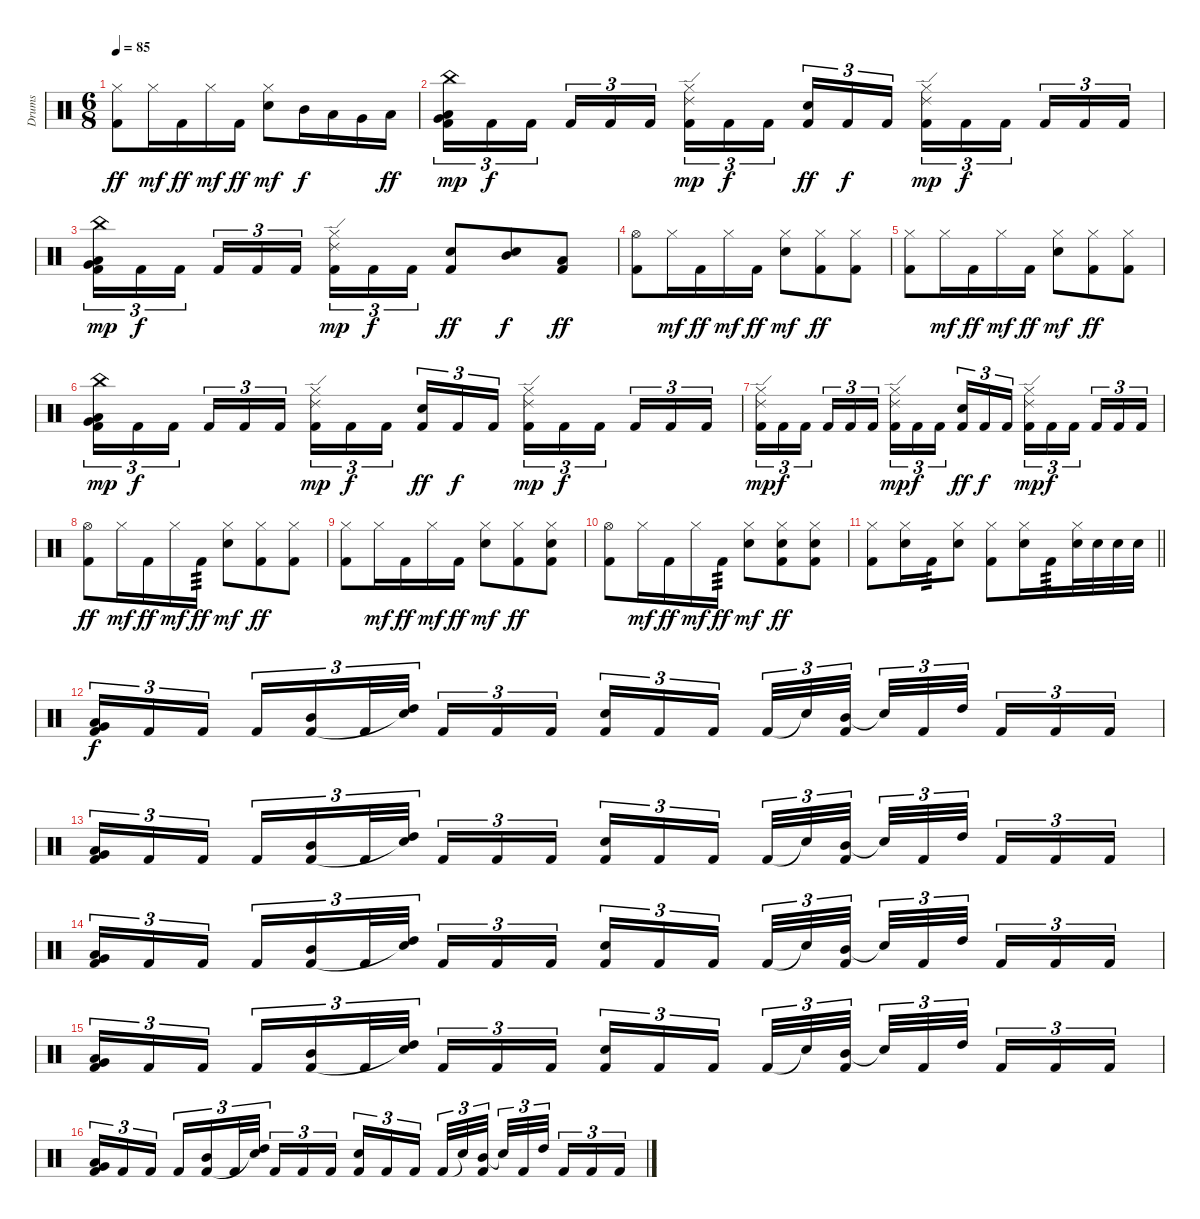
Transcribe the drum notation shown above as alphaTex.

\track ("Drums" "Drums") {instrument percussion}
\staff {score}
\articulation defaults
\ts (6 8)
\tempo 85
\clef neutral
\ks c
("Hi-Hat (closed)" "Kick (hit) 2").8{dy ff} "Hi-Hat (closed)".16{dy mf} "Kick (hit) 2".16{dy ff} "Hi-Hat (closed)".16{dy mf} "Kick (hit) 2".16{dy ff} ("Hi-Hat (closed)" "Snare (hit) 2").8{dy mf} "Mid Tom (hit)".16{dy f} "Low Tom (hit)".16 "Very Low Tom (hit)".16 "Low Floor Tom (hit)".16{dy ff} |
("China (hit)" "Low Tom (hit)" "Very Low Tom (hit)" "Kick (hit) 2").16{tu (3 2) dy mp} "Kick (hit) 2".16{tu (3 2) dy f} "Kick (hit) 2".16{tu (3 2) beam splitsecondary} "Kick (hit) 2".16{tu (3 2)} "Kick (hit) 2".16{tu (3 2)} "Kick (hit) 2".16{tu (3 2) beam splitsecondary} ("Ride (edge) 2" "Hi-Hat (closed)" "Kick (hit) 2").16{tu (3 2) dy mp} "Kick (hit) 2".16{tu (3 2) dy f} "Kick (hit) 2".16{tu (3 2)} ("Snare (hit) 2" "Kick (hit) 2").16{tu (3 2) dy ff} "Kick (hit) 2".16{tu (3 2) dy f} "Kick (hit) 2".16{tu (3 2) beam splitsecondary} ("Ride (edge) 2" "Hi-Hat (closed)" "Kick (hit) 2").16{tu (3 2) dy mp} "Kick (hit) 2".16{tu (3 2) dy f} "Kick (hit) 2".16{tu (3 2) beam splitsecondary} "Kick (hit) 2".16{tu (3 2)} "Kick (hit) 2".16{tu (3 2)} "Kick (hit) 2".16{tu (3 2)} |
("China (hit)" "Low Tom (hit)" "Very Low Tom (hit)" "Kick (hit) 2").16{tu (3 2) dy mp} "Kick (hit) 2".16{tu (3 2) dy f} "Kick (hit) 2".16{tu (3 2) beam splitsecondary} "Kick (hit) 2".16{tu (3 2)} "Kick (hit) 2".16{tu (3 2)} "Kick (hit) 2".16{tu (3 2) beam splitsecondary} ("Ride (edge) 2" "Hi-Hat (closed)" "Kick (hit) 2").16{tu (3 2) dy mp} "Kick (hit) 2".16{tu (3 2) dy f} "Kick (hit) 2".16{tu (3 2)} ("Snare (hit) 2" "Kick (hit) 2").8{dy ff} ("Mid Tom (hit)" "Snare (hit) 2").8{dy f} ("Low Floor Tom (hit)" "Kick (hit) 2").8{dy ff} |
("Hi-Hat (open)" "Kick (hit) 2").8 "Hi-Hat (closed)".16{dy mf} "Kick (hit) 2".16{dy ff} "Hi-Hat (closed)".16{dy mf} "Kick (hit) 2".16{dy ff} ("Hi-Hat (closed)" "Snare (hit) 2").8{dy mf} ("Hi-Hat (closed)" "Kick (hit) 2").8{dy ff} ("Hi-Hat (closed)" "Kick (hit) 2").8 |
("Hi-Hat (closed)" "Kick (hit) 2").8 "Hi-Hat (closed)".16{dy mf} "Kick (hit) 2".16{dy ff} "Hi-Hat (closed)".16{dy mf} "Kick (hit) 2".16{dy ff} ("Hi-Hat (closed)" "Snare (hit) 2").8{dy mf} ("Hi-Hat (closed)" "Kick (hit) 2").8{dy ff} ("Hi-Hat (closed)" "Kick (hit) 2").8 |
("China (hit)" "Low Tom (hit)" "Very Low Tom (hit)" "Kick (hit) 2").16{tu (3 2) dy mp} "Kick (hit) 2".16{tu (3 2) dy f} "Kick (hit) 2".16{tu (3 2) beam splitsecondary} "Kick (hit) 2".16{tu (3 2)} "Kick (hit) 2".16{tu (3 2)} "Kick (hit) 2".16{tu (3 2) beam splitsecondary} ("Ride (edge) 2" "Hi-Hat (closed)" "Kick (hit) 2").16{tu (3 2) dy mp} "Kick (hit) 2".16{tu (3 2) dy f} "Kick (hit) 2".16{tu (3 2)} ("Snare (hit) 2" "Kick (hit) 2").16{tu (3 2) dy ff} "Kick (hit) 2".16{tu (3 2) dy f} "Kick (hit) 2".16{tu (3 2) beam splitsecondary} ("Ride (edge) 2" "Hi-Hat (closed)" "Kick (hit) 2").16{tu (3 2) dy mp} "Kick (hit) 2".16{tu (3 2) dy f} "Kick (hit) 2".16{tu (3 2) beam splitsecondary} "Kick (hit) 2".16{tu (3 2)} "Kick (hit) 2".16{tu (3 2)} "Kick (hit) 2".16{tu (3 2)} |
("Ride (edge) 2" "Hi-Hat (closed)" "Kick (hit) 2").16{tu (3 2) dy mp} "Kick (hit) 2".16{tu (3 2) dy f} "Kick (hit) 2".16{tu (3 2) beam splitsecondary} "Kick (hit) 2".16{tu (3 2)} "Kick (hit) 2".16{tu (3 2)} "Kick (hit) 2".16{tu (3 2) beam splitsecondary} ("Ride (edge) 2" "Hi-Hat (closed)" "Kick (hit) 2").16{tu (3 2) dy mp} "Kick (hit) 2".16{tu (3 2) dy f} "Kick (hit) 2".16{tu (3 2)} ("Snare (hit) 2" "Kick (hit) 2").16{tu (3 2) dy ff} "Kick (hit) 2".16{tu (3 2) dy f} "Kick (hit) 2".16{tu (3 2) beam splitsecondary} ("Ride (edge) 2" "Hi-Hat (closed)" "Kick (hit) 2").16{tu (3 2) dy mp} "Kick (hit) 2".16{tu (3 2) dy f} "Kick (hit) 2".16{tu (3 2) beam splitsecondary} "Kick (hit) 2".16{tu (3 2)} "Kick (hit) 2".16{tu (3 2)} "Kick (hit) 2".16{tu (3 2)} |
("Hi-Hat (open)" "Kick (hit) 2").8{dy ff} "Hi-Hat (closed)".16{dy mf} "Kick (hit) 2".16{dy ff} "Hi-Hat (closed)".16{dy mf} "Kick (hit) 2".16{tp 3 dy ff} ("Hi-Hat (closed)" "Snare (hit) 2").8{dy mf} ("Hi-Hat (closed)" "Kick (hit) 2").8{dy ff} ("Hi-Hat (closed)" "Kick (hit) 2").8 |
("Hi-Hat (closed)" "Kick (hit) 2").8 "Hi-Hat (closed)".16{dy mf} "Kick (hit) 2".16{dy ff} "Hi-Hat (closed)".16{dy mf} "Kick (hit) 2".16{dy ff} ("Hi-Hat (closed)" "Snare (hit) 2").8{dy mf} ("Hi-Hat (closed)" "Kick (hit) 2").8{dy ff} ("Hi-Hat (closed)" "Snare (hit) 2" "Kick (hit) 2").8 |
("Hi-Hat (open)" "Kick (hit) 2").8 "Hi-Hat (closed)".16{dy mf} "Kick (hit) 2".16{dy ff} "Hi-Hat (closed)".16{dy mf} "Kick (hit) 2".16{tp 3 dy ff} ("Hi-Hat (closed)" "Snare (hit) 2").8{dy mf} ("Hi-Hat (closed)" "Snare (hit) 2" "Kick (hit) 2").8{dy ff} ("Hi-Hat (closed)" "Snare (hit) 2" "Kick (hit) 2").8 |
\barLineRight lightlight
("Hi-Hat (closed)" "Kick (hit) 2").8 ("Hi-Hat (closed)" "Snare (hit) 2").16 "Kick (hit) 2".16{tp 3} ("Hi-Hat (closed)" "Snare (hit) 2").8 ("Hi-Hat (closed)" "Kick (hit) 2").8 ("Hi-Hat (closed)" "Snare (hit) 2").16 "Kick (hit) 2".16{tp 3} ("Hi-Hat (closed)" "Snare (hit) 2").32 "Snare (hit) 2".32 "Snare (hit) 2".32 "Snare (hit) 2".32 |
\section ("" "")
("Very Low Tom (hit)" "Low Tom (hit)" "Kick (hit) 2").16{tu (3 2) dy f} "Kick (hit) 2".16{tu (3 2)} "Kick (hit) 2".16{tu (3 2) beam splitsecondary} "Kick (hit) 2".16{tu (3 2)} ("Mid Tom (hit)" "Kick (hit) 2").16{tu (3 2)} "Kick (hit) 2".32{tu (3 2)} ("High Tom (hit)" "Snare (hit)"{t}).32{tu (3 2) beam splitsecondary} "Kick (hit) 2".16{tu (3 2)} "Kick (hit) 2".16{tu (3 2)} "Kick (hit) 2".16{tu (3 2)} ("Snare (hit) 2" "Kick (hit) 2").16{tu (3 2)} "Kick (hit) 2".16{tu (3 2)} "Kick (hit) 2".16{tu (3 2) beam splitsecondary} "Kick (hit) 2".32{tu (3 2)} "Snare (hit)"{t}.32{tu (3 2)} ("Mid Tom (hit)" "Kick (hit) 2").32{tu (3 2) beam splitsecondary} "Snare (hit)"{t}.32{tu (3 2)} "Kick (hit) 2".32{tu (3 2)} "High Tom (hit)".32{tu (3 2) beam splitsecondary} "Kick (hit) 2".16{tu (3 2)} "Kick (hit) 2".16{tu (3 2)} "Kick (hit) 2".16{tu (3 2)} |
("Very Low Tom (hit)" "Low Tom (hit)" "Kick (hit) 2").16{tu (3 2)} "Kick (hit) 2".16{tu (3 2)} "Kick (hit) 2".16{tu (3 2) beam splitsecondary} "Kick (hit) 2".16{tu (3 2)} ("Mid Tom (hit)" "Kick (hit) 2").16{tu (3 2)} "Kick (hit) 2".32{tu (3 2)} ("High Tom (hit)" "Snare (hit)"{t}).32{tu (3 2) beam splitsecondary} "Kick (hit) 2".16{tu (3 2)} "Kick (hit) 2".16{tu (3 2)} "Kick (hit) 2".16{tu (3 2)} ("Snare (hit) 2" "Kick (hit) 2").16{tu (3 2)} "Kick (hit) 2".16{tu (3 2)} "Kick (hit) 2".16{tu (3 2) beam splitsecondary} "Kick (hit) 2".32{tu (3 2)} "Snare (hit)"{t}.32{tu (3 2)} ("Mid Tom (hit)" "Kick (hit) 2").32{tu (3 2) beam splitsecondary} "Snare (hit)"{t}.32{tu (3 2)} "Kick (hit) 2".32{tu (3 2)} "High Tom (hit)".32{tu (3 2) beam splitsecondary} "Kick (hit) 2".16{tu (3 2)} "Kick (hit) 2".16{tu (3 2)} "Kick (hit) 2".16{tu (3 2)} |
("Very Low Tom (hit)" "Low Tom (hit)" "Kick (hit) 2").16{tu (3 2)} "Kick (hit) 2".16{tu (3 2)} "Kick (hit) 2".16{tu (3 2) beam splitsecondary} "Kick (hit) 2".16{tu (3 2)} ("Mid Tom (hit)" "Kick (hit) 2").16{tu (3 2)} "Kick (hit) 2".32{tu (3 2)} ("High Tom (hit)" "Snare (hit)"{t}).32{tu (3 2) beam splitsecondary} "Kick (hit) 2".16{tu (3 2)} "Kick (hit) 2".16{tu (3 2)} "Kick (hit) 2".16{tu (3 2)} ("Snare (hit) 2" "Kick (hit) 2").16{tu (3 2)} "Kick (hit) 2".16{tu (3 2)} "Kick (hit) 2".16{tu (3 2) beam splitsecondary} "Kick (hit) 2".32{tu (3 2)} "Snare (hit)"{t}.32{tu (3 2)} ("Mid Tom (hit)" "Kick (hit) 2").32{tu (3 2) beam splitsecondary} "Snare (hit)"{t}.32{tu (3 2)} "Kick (hit) 2".32{tu (3 2)} "High Tom (hit)".32{tu (3 2) beam splitsecondary} "Kick (hit) 2".16{tu (3 2)} "Kick (hit) 2".16{tu (3 2)} "Kick (hit) 2".16{tu (3 2)} |
("Very Low Tom (hit)" "Low Tom (hit)" "Kick (hit) 2").16{tu (3 2)} "Kick (hit) 2".16{tu (3 2)} "Kick (hit) 2".16{tu (3 2) beam splitsecondary} "Kick (hit) 2".16{tu (3 2)} ("Mid Tom (hit)" "Kick (hit) 2").16{tu (3 2)} "Kick (hit) 2".32{tu (3 2)} ("High Tom (hit)" "Snare (hit)"{t}).32{tu (3 2) beam splitsecondary} "Kick (hit) 2".16{tu (3 2)} "Kick (hit) 2".16{tu (3 2)} "Kick (hit) 2".16{tu (3 2)} ("Snare (hit) 2" "Kick (hit) 2").16{tu (3 2)} "Kick (hit) 2".16{tu (3 2)} "Kick (hit) 2".16{tu (3 2) beam splitsecondary} "Kick (hit) 2".32{tu (3 2)} "Snare (hit)"{t}.32{tu (3 2)} ("Mid Tom (hit)" "Kick (hit) 2").32{tu (3 2) beam splitsecondary} "Snare (hit)"{t}.32{tu (3 2)} "Kick (hit) 2".32{tu (3 2)} "High Tom (hit)".32{tu (3 2) beam splitsecondary} "Kick (hit) 2".16{tu (3 2)} "Kick (hit) 2".16{tu (3 2)} "Kick (hit) 2".16{tu (3 2)} |
("Very Low Tom (hit)" "Low Tom (hit)" "Kick (hit) 2").16{tu (3 2)} "Kick (hit) 2".16{tu (3 2)} "Kick (hit) 2".16{tu (3 2) beam splitsecondary} "Kick (hit) 2".16{tu (3 2)} ("Mid Tom (hit)" "Kick (hit) 2").16{tu (3 2)} "Kick (hit) 2".32{tu (3 2)} ("High Tom (hit)" "Snare (hit)"{t}).32{tu (3 2) beam splitsecondary} "Kick (hit) 2".16{tu (3 2)} "Kick (hit) 2".16{tu (3 2)} "Kick (hit) 2".16{tu (3 2)} ("Snare (hit) 2" "Kick (hit) 2").16{tu (3 2)} "Kick (hit) 2".16{tu (3 2)} "Kick (hit) 2".16{tu (3 2) beam splitsecondary} "Kick (hit) 2".32{tu (3 2)} "Snare (hit)"{t}.32{tu (3 2)} ("Mid Tom (hit)" "Kick (hit) 2").32{tu (3 2) beam splitsecondary} "Snare (hit)"{t}.32{tu (3 2)} "Kick (hit) 2".32{tu (3 2)} "High Tom (hit)".32{tu (3 2) beam splitsecondary} "Kick (hit) 2".16{tu (3 2)} "Kick (hit) 2".16{tu (3 2)} "Kick (hit) 2".16{tu (3 2)}
